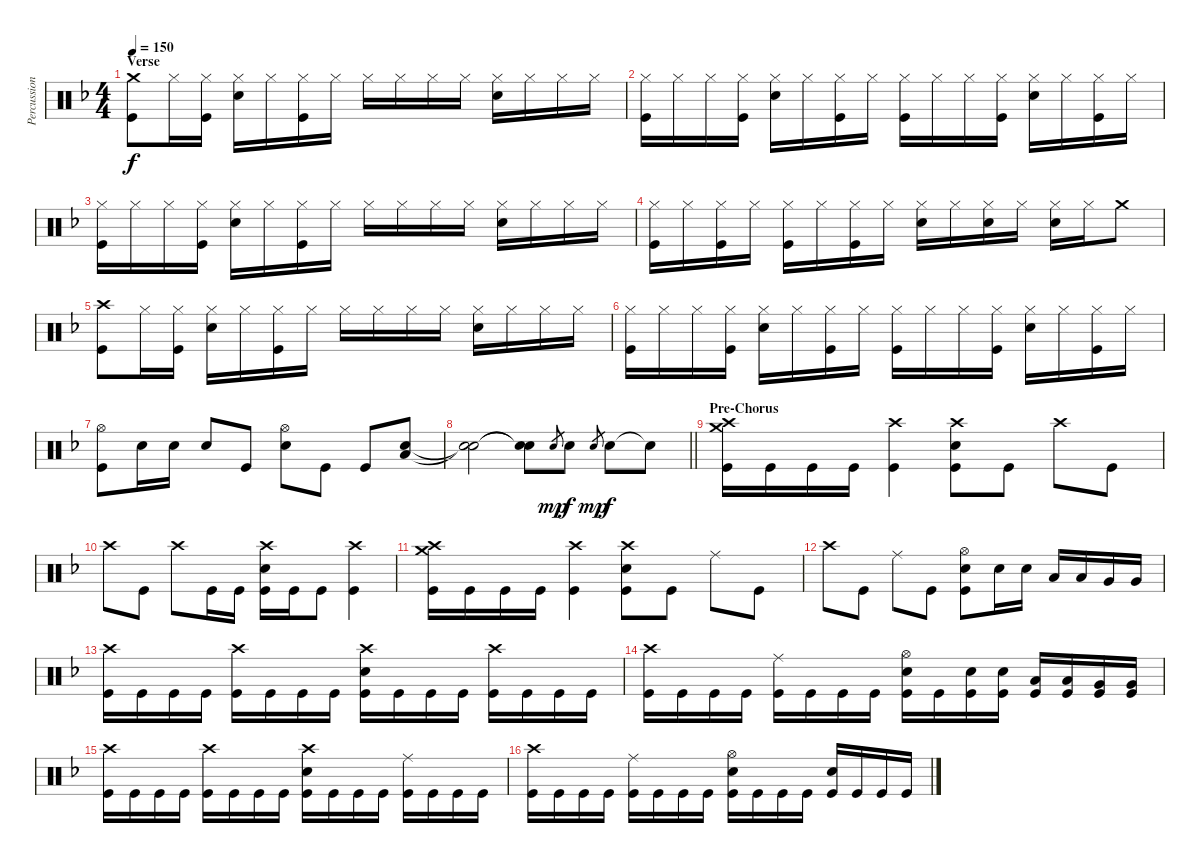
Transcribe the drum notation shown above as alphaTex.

\track ("Percussion" "Percussion") {instrument percussion}
\staff {score}
\articulation defaults
\ts (4 4)
\section ("" "Verse")
\tempo 150
\clef neutral
\ks f
("Crash medium (hit)" "Kick (hit)").8{dy f} "Hi-Hat (closed)".16 ("Hi-Hat (closed)" "Kick (hit)").16 ("Hi-Hat (closed)" "Electric Snare (hit)").16 "Hi-Hat (closed)".16 ("Hi-Hat (closed)" "Kick (hit)").16 "Hi-Hat (closed)".16 "Hi-Hat (closed)".16 "Hi-Hat (closed)".16 "Hi-Hat (closed)".16 "Hi-Hat (closed)".16 ("Hi-Hat (closed)" "Electric Snare (hit)").16 "Hi-Hat (closed)".16 "Hi-Hat (closed)".16 "Hi-Hat (closed)".16 |
("Hi-Hat (closed)" "Kick (hit)").16 "Hi-Hat (closed)".16 "Hi-Hat (closed)".16 ("Hi-Hat (closed)" "Kick (hit)").16 ("Hi-Hat (closed)" "Electric Snare (hit)").16 "Hi-Hat (closed)".16 ("Hi-Hat (closed)" "Kick (hit)").16 "Hi-Hat (closed)".16 ("Hi-Hat (closed)" "Kick (hit)").16 "Hi-Hat (closed)".16 "Hi-Hat (closed)".16 ("Hi-Hat (closed)" "Kick (hit)").16 ("Hi-Hat (closed)" "Electric Snare (hit)").16 "Hi-Hat (closed)".16 ("Hi-Hat (closed)" "Kick (hit)").16 "Hi-Hat (closed)".16 |
("Hi-Hat (closed)" "Kick (hit)").16 "Hi-Hat (closed)".16 "Hi-Hat (closed)".16 ("Hi-Hat (closed)" "Kick (hit)").16 ("Hi-Hat (closed)" "Electric Snare (hit)").16 "Hi-Hat (closed)".16 ("Hi-Hat (closed)" "Kick (hit)").16 "Hi-Hat (closed)".16 "Hi-Hat (closed)".16 "Hi-Hat (closed)".16 "Hi-Hat (closed)".16 "Hi-Hat (closed)".16 ("Hi-Hat (closed)" "Electric Snare (hit)").16 "Hi-Hat (closed)".16 "Hi-Hat (closed)".16 "Hi-Hat (closed)".16 |
("Hi-Hat (closed)" "Kick (hit)").16 "Hi-Hat (closed)".16 ("Hi-Hat (closed)" "Kick (hit)").16 "Hi-Hat (closed)".16 ("Hi-Hat (closed)" "Kick (hit)").16 "Hi-Hat (closed)".16 ("Hi-Hat (closed)" "Kick (hit)").16 "Hi-Hat (closed)".16 ("Hi-Hat (closed)" "Electric Snare (hit)").16 "Hi-Hat (closed)".16 ("Hi-Hat (closed)" "Electric Snare (hit)").16 "Hi-Hat (closed)".16 ("Hi-Hat (closed)" "Electric Snare (hit)").16 "Hi-Hat (closed)".16 "Crash medium (hit)".8 |
("Crash high (hit)" "Kick (hit)").8 "Hi-Hat (closed)".16 ("Hi-Hat (closed)" "Kick (hit)").16 ("Hi-Hat (closed)" "Electric Snare (hit)").16 "Hi-Hat (closed)".16 ("Hi-Hat (closed)" "Kick (hit)").16 "Hi-Hat (closed)".16 "Hi-Hat (closed)".16 "Hi-Hat (closed)".16 "Hi-Hat (closed)".16 "Hi-Hat (closed)".16 ("Hi-Hat (closed)" "Electric Snare (hit)").16 "Hi-Hat (closed)".16 "Hi-Hat (closed)".16 "Hi-Hat (closed)".16 |
("Hi-Hat (closed)" "Kick (hit)").16 "Hi-Hat (closed)".16 "Hi-Hat (closed)".16 ("Hi-Hat (closed)" "Kick (hit)").16 ("Hi-Hat (closed)" "Electric Snare (hit)").16 "Hi-Hat (closed)".16 ("Hi-Hat (closed)" "Kick (hit)").16 "Hi-Hat (closed)".16 ("Hi-Hat (closed)" "Kick (hit)").16 "Hi-Hat (closed)".16 "Hi-Hat (closed)".16 ("Hi-Hat (closed)" "Kick (hit)").16 ("Hi-Hat (closed)" "Electric Snare (hit)").16 "Hi-Hat (closed)".16 ("Hi-Hat (closed)" "Kick (hit)").16 "Hi-Hat (closed)".16 |
("Hi-Hat (open)" "Kick (hit)").8 "Electric Snare (hit)".16 "Electric Snare (hit)".16 "Electric Snare (hit)".8 "Kick (hit)".8 ("Hi-Hat (open)" "Electric Snare (hit)").8 "Kick (hit)".8 "Kick (hit)".8 ("Electric Snare (hit)" "Low Floor Tom (hit)").8 |
\barLineRight lightlight
("Snare (hit)"{t} "Snare (hit)"{t}).2 ("Snare (hit)"{t} "Snare (hit)"{t}).8 "Electric Snare (hit)".8{gr dy mp} "Electric Snare (hit)".8{dy f} "Electric Snare (hit)".8{gr dy mp} "Electric Snare (hit)".8{dy f} "Snare (hit)"{t}.8 |
\section ("" "Pre-Chorus")
("Crash high (hit)" "Crash medium (hit)" "Kick (hit)").16 "Kick (hit)".16 "Kick (hit)".16 "Kick (hit)".16 ("Crash high (hit)" "Kick (hit)").4 ("Crash high (hit)" "Electric Snare (hit)" "Kick (hit)").8 "Kick (hit)".8 "Crash high (hit)".8 "Kick (hit)".8 |
"Crash high (hit)".8 "Kick (hit)".8 "Crash high (hit)".8 "Kick (hit)".16 "Kick (hit)".16 ("Crash high (hit)" "Electric Snare (hit)" "Kick (hit)").16 "Kick (hit)".16 "Kick (hit)".8 ("Crash high (hit)" "Kick (hit)").4 |
("Crash high (hit)" "Crash medium (hit)" "Kick (hit)").16 "Kick (hit)".16 "Kick (hit)".16 "Kick (hit)".16 ("Crash high (hit)" "Kick (hit)").4 ("Crash high (hit)" "Electric Snare (hit)" "Kick (hit)").8 "Kick (hit)".8 "Ride (middle)".8 "Kick (hit)".8 |
"Crash high (hit)".8 "Kick (hit)".8 "Ride (middle)".8 "Kick (hit)".8 ("Hi-Hat (open)" "Electric Snare (hit)" "Kick (hit)").8 "Electric Snare (hit)".16 "Electric Snare (hit)".16 "Low Tom (hit)".16 "Low Tom (hit)".16 "Very Low Tom (hit)".16 "Very Low Tom (hit)".16 |
("Crash high (hit)" "Kick (hit)").16 "Kick (hit)".16 "Kick (hit)".16 "Kick (hit)".16 ("Crash high (hit)" "Kick (hit)").16 "Kick (hit)".16 "Kick (hit)".16 "Kick (hit)".16 ("Crash high (hit)" "Electric Snare (hit)" "Kick (hit)").16 "Kick (hit)".16 "Kick (hit)".16 "Kick (hit)".16 ("Crash high (hit)" "Kick (hit)").16 "Kick (hit)".16 "Kick (hit)".16 "Kick (hit)".16 |
("Crash high (hit)" "Kick (hit)").16 "Kick (hit)".16 "Kick (hit)".16 "Kick (hit)".16 ("Ride (middle)" "Kick (hit)").16 "Kick (hit)".16 "Kick (hit)".16 "Kick (hit)".16 ("Hi-Hat (open)" "Electric Snare (hit)" "Kick (hit)").16 "Kick (hit)".16 ("Electric Snare (hit)" "Kick (hit)").16 ("Electric Snare (hit)" "Kick (hit)").16 ("Low Tom (hit)" "Kick (hit)").16 ("Low Tom (hit)" "Kick (hit)").16 ("Very Low Tom (hit)" "Kick (hit)").16 ("Very Low Tom (hit)" "Kick (hit)").16 |
("Crash high (hit)" "Kick (hit)").16 "Kick (hit)".16 "Kick (hit)".16 "Kick (hit)".16 ("Crash high (hit)" "Kick (hit)").16 "Kick (hit)".16 "Kick (hit)".16 "Kick (hit)".16 ("Crash high (hit)" "Electric Snare (hit)" "Kick (hit)").16 "Kick (hit)".16 "Kick (hit)".16 "Kick (hit)".16 ("Ride (middle)" "Kick (hit)").16 "Kick (hit)".16 "Kick (hit)".16 "Kick (hit)".16 |
("Crash high (hit)" "Kick (hit)").16 "Kick (hit)".16 "Kick (hit)".16 "Kick (hit)".16 ("Ride (middle)" "Kick (hit)").16 "Kick (hit)".16 "Kick (hit)".16 "Kick (hit)".16 ("Hi-Hat (open)" "Electric Snare (hit)" "Kick (hit)").16 "Kick (hit)".16 "Kick (hit)".16 "Kick (hit)".16 ("Electric Snare (hit)" "Kick (hit)").16 "Kick (hit)".16 "Kick (hit)".16 "Kick (hit)".16
